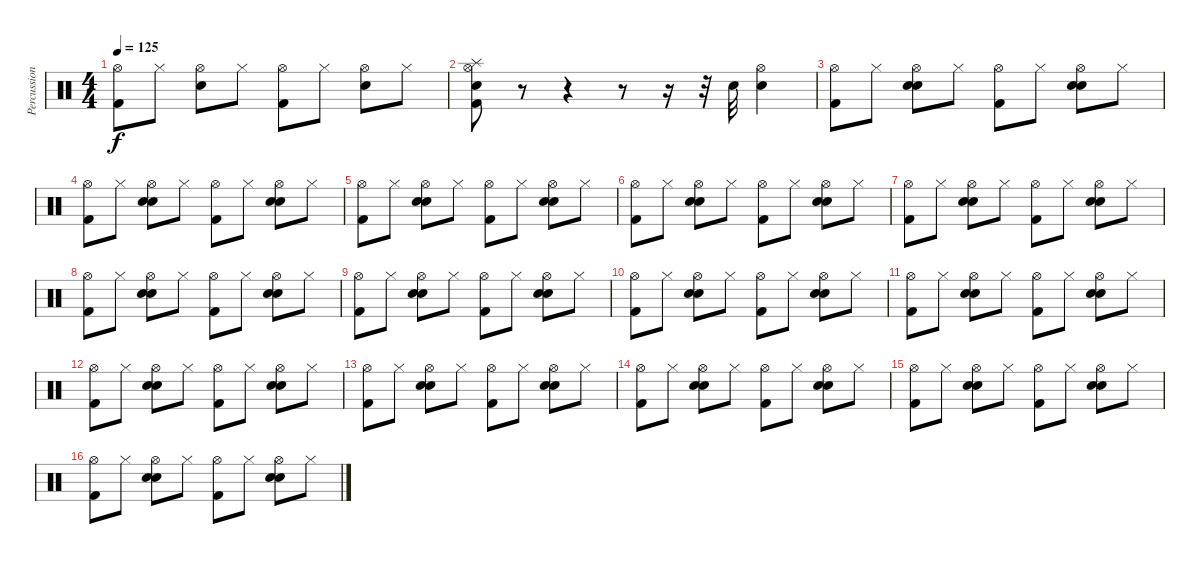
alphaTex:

\track ("Percussions" "Percussion") {instrument percussion}
\staff {score}
\articulation defaults
\ts (4 4)
\tempo 125
\clef neutral
\ks c
("Hi-Hat (open)" "Kick (hit) 2").8{dy f} "Hi-Hat (closed)".8 ("Hi-Hat (open)" "Snare (hit) 2").8 "Hi-Hat (closed)".8 ("Hi-Hat (open)" "Kick (hit) 2").8 "Hi-Hat (closed)".8 ("Hi-Hat (open)" "Snare (hit) 2").8 "Hi-Hat (closed)".8 |
("Hi-Hat (open)" "Splash (hit)" "Snare (hit) 2" "Kick (hit) 2").8 r.8 r.4 r.8 r.16 r.32 "Snare (hit) 2".32 ("Hi-Hat (open)" "Snare (hit) 2").4 |
("Hi-Hat (open)" "Kick (hit) 2").8 "Hi-Hat (closed)".8 ("Hi-Hat (open)" "Electric Snare (hit)" "Snare (hit) 2").8 "Hi-Hat (closed)".8 ("Hi-Hat (open)" "Kick (hit) 2").8 "Hi-Hat (closed)".8 ("Hi-Hat (open)" "Electric Snare (hit)" "Snare (hit) 2").8 "Hi-Hat (closed)".8 |
("Hi-Hat (open)" "Kick (hit) 2").8 "Hi-Hat (closed)".8 ("Hi-Hat (open)" "Electric Snare (hit)" "Snare (hit) 2").8 "Hi-Hat (closed)".8 ("Hi-Hat (open)" "Kick (hit) 2").8 "Hi-Hat (closed)".8 ("Hi-Hat (open)" "Electric Snare (hit)" "Snare (hit) 2").8 "Hi-Hat (closed)".8 |
("Hi-Hat (open)" "Kick (hit) 2").8 "Hi-Hat (closed)".8 ("Hi-Hat (open)" "Electric Snare (hit)" "Snare (hit) 2").8 "Hi-Hat (closed)".8 ("Hi-Hat (open)" "Kick (hit) 2").8 "Hi-Hat (closed)".8 ("Hi-Hat (open)" "Electric Snare (hit)" "Snare (hit) 2").8 "Hi-Hat (closed)".8 |
("Hi-Hat (open)" "Kick (hit) 2").8 "Hi-Hat (closed)".8 ("Hi-Hat (open)" "Electric Snare (hit)" "Snare (hit) 2").8 "Hi-Hat (closed)".8 ("Hi-Hat (open)" "Kick (hit) 2").8 "Hi-Hat (closed)".8 ("Hi-Hat (open)" "Electric Snare (hit)" "Snare (hit) 2").8 "Hi-Hat (closed)".8 |
("Hi-Hat (open)" "Kick (hit) 2").8 "Hi-Hat (closed)".8 ("Hi-Hat (open)" "Electric Snare (hit)" "Snare (hit) 2").8 "Hi-Hat (closed)".8 ("Hi-Hat (open)" "Kick (hit) 2").8 "Hi-Hat (closed)".8 ("Hi-Hat (open)" "Electric Snare (hit)" "Snare (hit) 2").8 "Hi-Hat (closed)".8 |
("Hi-Hat (open)" "Kick (hit) 2").8 "Hi-Hat (closed)".8 ("Hi-Hat (open)" "Electric Snare (hit)" "Snare (hit) 2").8 "Hi-Hat (closed)".8 ("Hi-Hat (open)" "Kick (hit) 2").8 "Hi-Hat (closed)".8 ("Hi-Hat (open)" "Electric Snare (hit)" "Snare (hit) 2").8 "Hi-Hat (closed)".8 |
("Hi-Hat (open)" "Kick (hit) 2").8 "Hi-Hat (closed)".8 ("Hi-Hat (open)" "Electric Snare (hit)" "Snare (hit) 2").8 "Hi-Hat (closed)".8 ("Hi-Hat (open)" "Kick (hit) 2").8 "Hi-Hat (closed)".8 ("Hi-Hat (open)" "Electric Snare (hit)" "Snare (hit) 2").8 "Hi-Hat (closed)".8 |
("Hi-Hat (open)" "Kick (hit) 2").8 "Hi-Hat (closed)".8 ("Hi-Hat (open)" "Electric Snare (hit)" "Snare (hit) 2").8 "Hi-Hat (closed)".8 ("Hi-Hat (open)" "Kick (hit) 2").8 "Hi-Hat (closed)".8 ("Hi-Hat (open)" "Electric Snare (hit)" "Snare (hit) 2").8 "Hi-Hat (closed)".8 |
("Hi-Hat (open)" "Kick (hit) 2").8 "Hi-Hat (closed)".8 ("Hi-Hat (open)" "Electric Snare (hit)" "Snare (hit) 2").8 "Hi-Hat (closed)".8 ("Hi-Hat (open)" "Kick (hit) 2").8 "Hi-Hat (closed)".8 ("Hi-Hat (open)" "Electric Snare (hit)" "Snare (hit) 2").8 "Hi-Hat (closed)".8 |
("Hi-Hat (open)" "Kick (hit) 2").8 "Hi-Hat (closed)".8 ("Hi-Hat (open)" "Electric Snare (hit)" "Snare (hit) 2").8 "Hi-Hat (closed)".8 ("Hi-Hat (open)" "Kick (hit) 2").8 "Hi-Hat (closed)".8 ("Hi-Hat (open)" "Electric Snare (hit)" "Snare (hit) 2").8 "Hi-Hat (closed)".8 |
("Hi-Hat (open)" "Kick (hit) 2").8 "Hi-Hat (closed)".8 ("Hi-Hat (open)" "Electric Snare (hit)" "Snare (hit) 2").8 "Hi-Hat (closed)".8 ("Hi-Hat (open)" "Kick (hit) 2").8 "Hi-Hat (closed)".8 ("Hi-Hat (open)" "Electric Snare (hit)" "Snare (hit) 2").8 "Hi-Hat (closed)".8 |
("Hi-Hat (open)" "Kick (hit) 2").8 "Hi-Hat (closed)".8 ("Hi-Hat (open)" "Electric Snare (hit)" "Snare (hit) 2").8 "Hi-Hat (closed)".8 ("Hi-Hat (open)" "Kick (hit) 2").8 "Hi-Hat (closed)".8 ("Hi-Hat (open)" "Electric Snare (hit)" "Snare (hit) 2").8 "Hi-Hat (closed)".8 |
("Hi-Hat (open)" "Kick (hit) 2").8 "Hi-Hat (closed)".8 ("Hi-Hat (open)" "Electric Snare (hit)" "Snare (hit) 2").8 "Hi-Hat (closed)".8 ("Hi-Hat (open)" "Kick (hit) 2").8 "Hi-Hat (closed)".8 ("Hi-Hat (open)" "Electric Snare (hit)" "Snare (hit) 2").8 "Hi-Hat (closed)".8 |
("Hi-Hat (open)" "Kick (hit) 2").8 "Hi-Hat (closed)".8 ("Hi-Hat (open)" "Electric Snare (hit)" "Snare (hit) 2").8 "Hi-Hat (closed)".8 ("Hi-Hat (open)" "Kick (hit) 2").8 "Hi-Hat (closed)".8 ("Hi-Hat (open)" "Electric Snare (hit)" "Snare (hit) 2").8 "Hi-Hat (closed)".8
